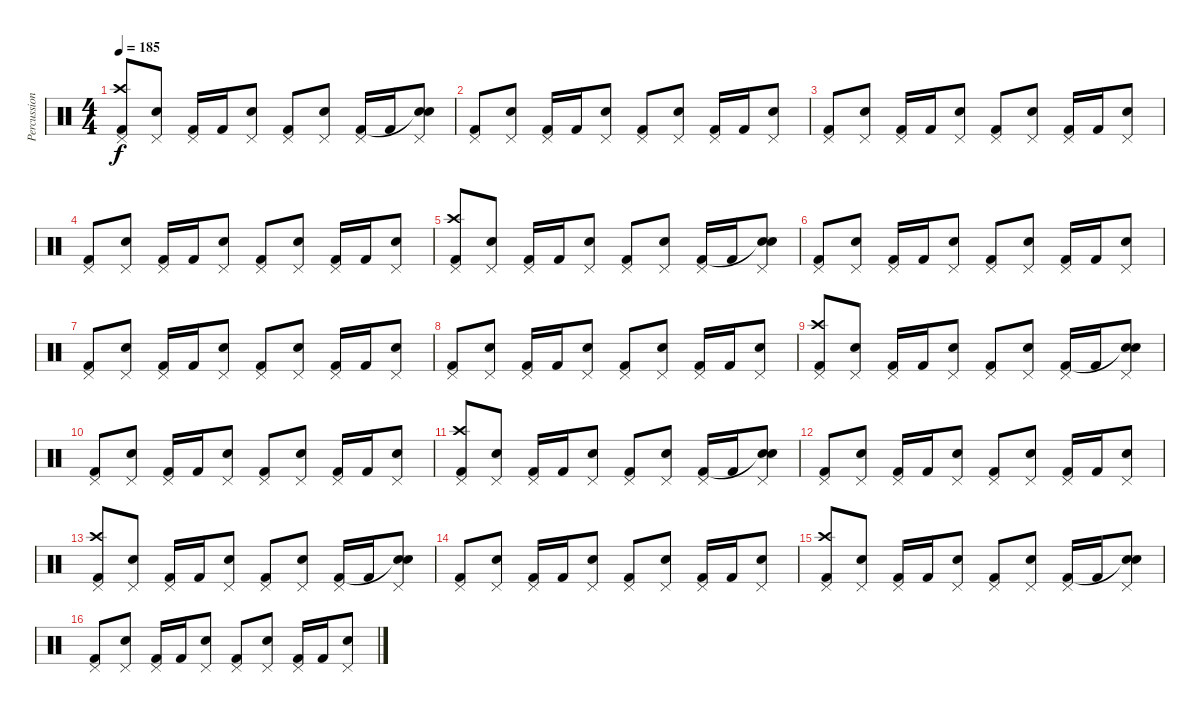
\track ("Percussions" "Percussion") {instrument percussion}
\staff {score}
\articulation defaults
\ts (4 4)
\tempo 185
\clef neutral
\ks c
("Pedal Hi-Hat (hit)" "Crash high (hit)" "Kick (hit) 2").8{dy f} ("Pedal Hi-Hat (hit)" "Snare (hit) 2").8 ("Pedal Hi-Hat (hit)" "Kick (hit) 2").16 "Kick (hit) 2".16 ("Pedal Hi-Hat (hit)" "Snare (hit) 2").8 ("Pedal Hi-Hat (hit)" "Kick (hit) 2").8 ("Pedal Hi-Hat (hit)" "Snare (hit) 2").8 ("Pedal Hi-Hat (hit)" "Kick (hit) 2").16 "Kick (hit) 2".16 ("Pedal Hi-Hat (hit)" "Snare (hit)"{t} "Snare (hit) 2").8 |
("Pedal Hi-Hat (hit)" "Kick (hit) 2").8 ("Pedal Hi-Hat (hit)" "Snare (hit) 2").8 ("Pedal Hi-Hat (hit)" "Kick (hit) 2").16 "Kick (hit) 2".16 ("Pedal Hi-Hat (hit)" "Snare (hit) 2").8 ("Pedal Hi-Hat (hit)" "Kick (hit) 2").8 ("Pedal Hi-Hat (hit)" "Snare (hit) 2").8 ("Pedal Hi-Hat (hit)" "Kick (hit) 2").16 "Kick (hit) 2".16 ("Pedal Hi-Hat (hit)" "Snare (hit) 2").8 |
("Pedal Hi-Hat (hit)" "Kick (hit) 2").8 ("Pedal Hi-Hat (hit)" "Snare (hit) 2").8 ("Pedal Hi-Hat (hit)" "Kick (hit) 2").16 "Kick (hit) 2".16 ("Pedal Hi-Hat (hit)" "Snare (hit) 2").8 ("Pedal Hi-Hat (hit)" "Kick (hit) 2").8 ("Pedal Hi-Hat (hit)" "Snare (hit) 2").8 ("Pedal Hi-Hat (hit)" "Kick (hit) 2").16 "Kick (hit) 2".16 ("Pedal Hi-Hat (hit)" "Snare (hit) 2").8 |
("Pedal Hi-Hat (hit)" "Kick (hit) 2").8 ("Pedal Hi-Hat (hit)" "Snare (hit) 2").8 ("Pedal Hi-Hat (hit)" "Kick (hit) 2").16 "Kick (hit) 2".16 ("Pedal Hi-Hat (hit)" "Snare (hit) 2").8 ("Pedal Hi-Hat (hit)" "Kick (hit) 2").8 ("Pedal Hi-Hat (hit)" "Snare (hit) 2").8 ("Pedal Hi-Hat (hit)" "Kick (hit) 2").16 "Kick (hit) 2".16 ("Pedal Hi-Hat (hit)" "Snare (hit) 2").8 |
("Pedal Hi-Hat (hit)" "Crash high (hit)" "Kick (hit) 2").8 ("Pedal Hi-Hat (hit)" "Snare (hit) 2").8 ("Pedal Hi-Hat (hit)" "Kick (hit) 2").16 "Kick (hit) 2".16 ("Pedal Hi-Hat (hit)" "Snare (hit) 2").8 ("Pedal Hi-Hat (hit)" "Kick (hit) 2").8 ("Pedal Hi-Hat (hit)" "Snare (hit) 2").8 ("Pedal Hi-Hat (hit)" "Kick (hit) 2").16 "Kick (hit) 2".16 ("Pedal Hi-Hat (hit)" "Snare (hit)"{t} "Snare (hit) 2").8 |
("Pedal Hi-Hat (hit)" "Kick (hit) 2").8 ("Pedal Hi-Hat (hit)" "Snare (hit) 2").8 ("Pedal Hi-Hat (hit)" "Kick (hit) 2").16 "Kick (hit) 2".16 ("Pedal Hi-Hat (hit)" "Snare (hit) 2").8 ("Pedal Hi-Hat (hit)" "Kick (hit) 2").8 ("Pedal Hi-Hat (hit)" "Snare (hit) 2").8 ("Pedal Hi-Hat (hit)" "Kick (hit) 2").16 "Kick (hit) 2".16 ("Pedal Hi-Hat (hit)" "Snare (hit) 2").8 |
("Pedal Hi-Hat (hit)" "Kick (hit) 2").8 ("Pedal Hi-Hat (hit)" "Snare (hit) 2").8 ("Pedal Hi-Hat (hit)" "Kick (hit) 2").16 "Kick (hit) 2".16 ("Pedal Hi-Hat (hit)" "Snare (hit) 2").8 ("Pedal Hi-Hat (hit)" "Kick (hit) 2").8 ("Pedal Hi-Hat (hit)" "Snare (hit) 2").8 ("Pedal Hi-Hat (hit)" "Kick (hit) 2").16 "Kick (hit) 2".16 ("Pedal Hi-Hat (hit)" "Snare (hit) 2").8 |
("Pedal Hi-Hat (hit)" "Kick (hit) 2").8 ("Pedal Hi-Hat (hit)" "Snare (hit) 2").8 ("Pedal Hi-Hat (hit)" "Kick (hit) 2").16 "Kick (hit) 2".16 ("Pedal Hi-Hat (hit)" "Snare (hit) 2").8 ("Pedal Hi-Hat (hit)" "Kick (hit) 2").8 ("Pedal Hi-Hat (hit)" "Snare (hit) 2").8 ("Pedal Hi-Hat (hit)" "Kick (hit) 2").16 "Kick (hit) 2".16 ("Pedal Hi-Hat (hit)" "Snare (hit) 2").8 |
("Pedal Hi-Hat (hit)" "Crash high (hit)" "Kick (hit) 2").8 ("Pedal Hi-Hat (hit)" "Snare (hit) 2").8 ("Pedal Hi-Hat (hit)" "Kick (hit) 2").16 "Kick (hit) 2".16 ("Pedal Hi-Hat (hit)" "Snare (hit) 2").8 ("Pedal Hi-Hat (hit)" "Kick (hit) 2").8 ("Pedal Hi-Hat (hit)" "Snare (hit) 2").8 ("Pedal Hi-Hat (hit)" "Kick (hit) 2").16 "Kick (hit) 2".16 ("Pedal Hi-Hat (hit)" "Snare (hit)"{t} "Snare (hit) 2").8 |
("Pedal Hi-Hat (hit)" "Kick (hit) 2").8 ("Pedal Hi-Hat (hit)" "Snare (hit) 2").8 ("Pedal Hi-Hat (hit)" "Kick (hit) 2").16 "Kick (hit) 2".16 ("Pedal Hi-Hat (hit)" "Snare (hit) 2").8 ("Pedal Hi-Hat (hit)" "Kick (hit) 2").8 ("Pedal Hi-Hat (hit)" "Snare (hit) 2").8 ("Pedal Hi-Hat (hit)" "Kick (hit) 2").16 "Kick (hit) 2".16 ("Pedal Hi-Hat (hit)" "Snare (hit) 2").8 |
("Pedal Hi-Hat (hit)" "Crash high (hit)" "Kick (hit) 2").8 ("Pedal Hi-Hat (hit)" "Snare (hit) 2").8 ("Pedal Hi-Hat (hit)" "Kick (hit) 2").16 "Kick (hit) 2".16 ("Pedal Hi-Hat (hit)" "Snare (hit) 2").8 ("Pedal Hi-Hat (hit)" "Kick (hit) 2").8 ("Pedal Hi-Hat (hit)" "Snare (hit) 2").8 ("Pedal Hi-Hat (hit)" "Kick (hit) 2").16 "Kick (hit) 2".16 ("Pedal Hi-Hat (hit)" "Snare (hit)"{t} "Snare (hit) 2").8 |
("Pedal Hi-Hat (hit)" "Kick (hit) 2").8 ("Pedal Hi-Hat (hit)" "Snare (hit) 2").8 ("Pedal Hi-Hat (hit)" "Kick (hit) 2").16 "Kick (hit) 2".16 ("Pedal Hi-Hat (hit)" "Snare (hit) 2").8 ("Pedal Hi-Hat (hit)" "Kick (hit) 2").8 ("Pedal Hi-Hat (hit)" "Snare (hit) 2").8 ("Pedal Hi-Hat (hit)" "Kick (hit) 2").16 "Kick (hit) 2".16 ("Pedal Hi-Hat (hit)" "Snare (hit) 2").8 |
("Pedal Hi-Hat (hit)" "Crash high (hit)" "Kick (hit) 2").8 ("Pedal Hi-Hat (hit)" "Snare (hit) 2").8 ("Pedal Hi-Hat (hit)" "Kick (hit) 2").16 "Kick (hit) 2".16 ("Pedal Hi-Hat (hit)" "Snare (hit) 2").8 ("Pedal Hi-Hat (hit)" "Kick (hit) 2").8 ("Pedal Hi-Hat (hit)" "Snare (hit) 2").8 ("Pedal Hi-Hat (hit)" "Kick (hit) 2").16 "Kick (hit) 2".16 ("Pedal Hi-Hat (hit)" "Snare (hit)"{t} "Snare (hit) 2").8 |
("Pedal Hi-Hat (hit)" "Kick (hit) 2").8 ("Pedal Hi-Hat (hit)" "Snare (hit) 2").8 ("Pedal Hi-Hat (hit)" "Kick (hit) 2").16 "Kick (hit) 2".16 ("Pedal Hi-Hat (hit)" "Snare (hit) 2").8 ("Pedal Hi-Hat (hit)" "Kick (hit) 2").8 ("Pedal Hi-Hat (hit)" "Snare (hit) 2").8 ("Pedal Hi-Hat (hit)" "Kick (hit) 2").16 "Kick (hit) 2".16 ("Pedal Hi-Hat (hit)" "Snare (hit) 2").8 |
("Pedal Hi-Hat (hit)" "Crash high (hit)" "Kick (hit) 2").8 ("Pedal Hi-Hat (hit)" "Snare (hit) 2").8 ("Pedal Hi-Hat (hit)" "Kick (hit) 2").16 "Kick (hit) 2".16 ("Pedal Hi-Hat (hit)" "Snare (hit) 2").8 ("Pedal Hi-Hat (hit)" "Kick (hit) 2").8 ("Pedal Hi-Hat (hit)" "Snare (hit) 2").8 ("Pedal Hi-Hat (hit)" "Kick (hit) 2").16 "Kick (hit) 2".16 ("Pedal Hi-Hat (hit)" "Snare (hit)"{t} "Snare (hit) 2").8 |
("Pedal Hi-Hat (hit)" "Kick (hit) 2").8 ("Pedal Hi-Hat (hit)" "Snare (hit) 2").8 ("Pedal Hi-Hat (hit)" "Kick (hit) 2").16 "Kick (hit) 2".16 ("Pedal Hi-Hat (hit)" "Snare (hit) 2").8 ("Pedal Hi-Hat (hit)" "Kick (hit) 2").8 ("Pedal Hi-Hat (hit)" "Snare (hit) 2").8 ("Pedal Hi-Hat (hit)" "Kick (hit) 2").16 "Kick (hit) 2".16 ("Pedal Hi-Hat (hit)" "Snare (hit) 2").8
